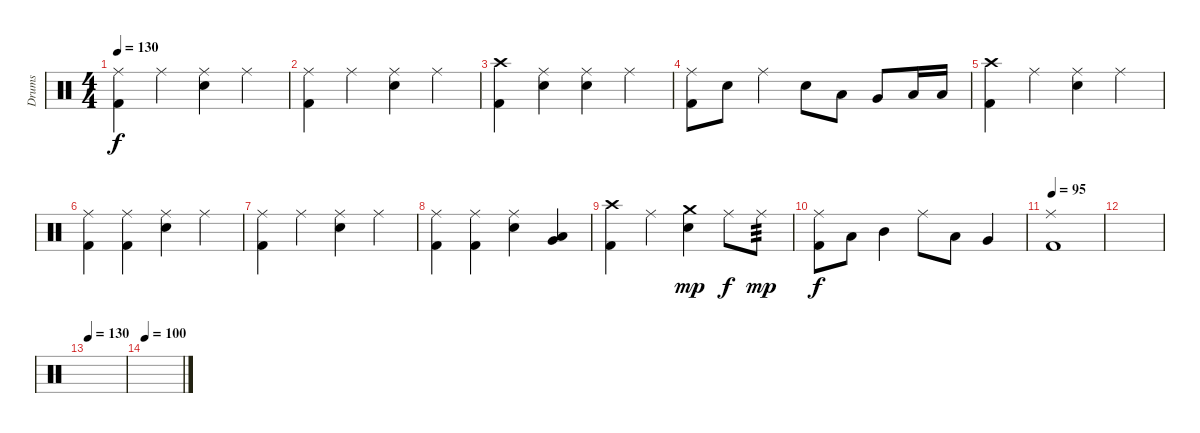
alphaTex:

\track ("Drums" "Drums") {instrument percussion}
\staff {score}
\articulation defaults
\ts (4 4)
\tempo 130
\clef neutral
\ks c
("Ride (middle)" "Kick (hit) 2").4{dy f} "Ride (middle)".4 ("Ride (middle)" "Electric Snare (hit)").4 "Ride (middle)".4 |
("Ride (middle)" "Kick (hit) 2").4 "Ride (middle)".4 ("Ride (middle)" "Electric Snare (hit)").4 "Ride (middle)".4 |
("Crash high (hit)" "Kick (hit) 2").4 ("Ride (middle)" "Electric Snare (hit)").4 ("Ride (middle)" "Electric Snare (hit)").4 "Ride (middle)".4 |
("Ride (middle)" "Kick (hit) 2").8 "Electric Snare (hit)".8 "Ride (middle)".4 "Electric Snare (hit)".8 "Low Tom (hit)".8 "Very Low Tom (hit)".8 "Low Floor Tom (hit)".16 "Low Floor Tom (hit)".16 |
("Crash high (hit)" "Kick (hit) 2").4 "Ride (middle)".4 ("Ride (middle)" "Electric Snare (hit)").4 "Ride (middle)".4 |
("Ride (middle)" "Kick (hit) 2").4 ("Ride (middle)" "Kick (hit) 2").4 ("Ride (middle)" "Electric Snare (hit)").4 "Ride (middle)".4 |
("Ride (middle)" "Kick (hit) 2").4 "Ride (middle)".4 ("Ride (middle)" "Electric Snare (hit)").4 "Ride (middle)".4 |
("Ride (middle)" "Kick (hit) 2").4 ("Ride (middle)" "Kick (hit) 2").4 ("Ride (middle)" "Electric Snare (hit)").4 ("Low Tom (hit)" "Very Low Tom (hit)").4 |
("Crash high (hit)" "Kick (hit) 2").4 "Ride (middle)".4 ("Crash medium (hit)" "Electric Snare (hit)").4{dy mp} "Ride (middle)".8{dy f} "Ride (middle)".8{tp 3 dy mp} |
("Ride (middle)" "Kick (hit) 2").8{dy f} "Low Tom (hit)".8 "Mid Tom (hit)".4 "Ride (middle)".8 "Low Tom (hit)".8 "Very Low Tom (hit)".4 |
\tempo 95
("Ride (middle)" "Kick (hit) 2").1 |
|
\tempo 130
|
\tempo 100
